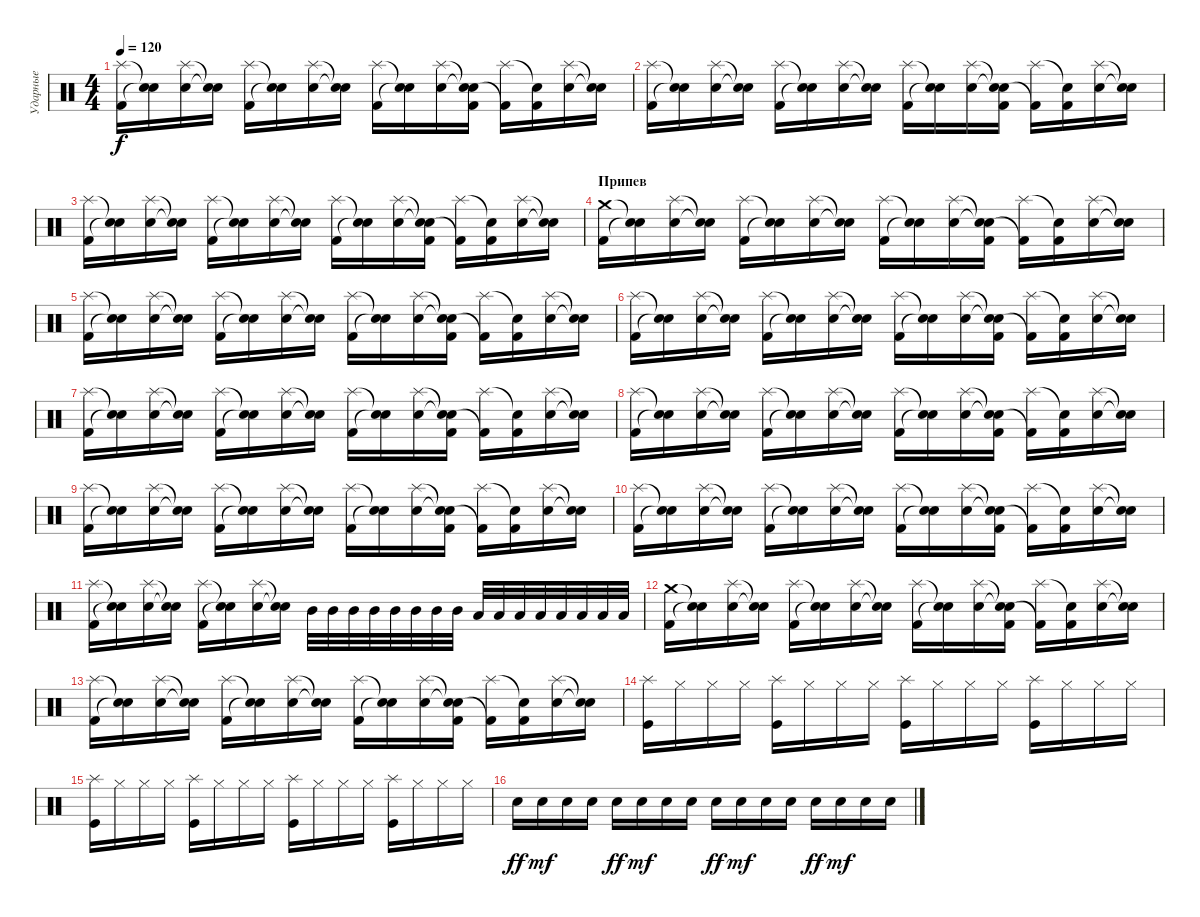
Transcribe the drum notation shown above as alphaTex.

\track ("Ударные" "Ударные") {instrument percussion}
\staff {score}
\articulation defaults
\ts (4 4)
\tempo 120
\clef neutral
\ks c
("Splash (hit)" "Kick (hit) 2").16{dy f} ("Snare (hit)"{t} "Snare (hit)"{t}).16 ("Splash (hit)" "Electric Snare (hit)").16 ("Snare (hit)"{t} "Snare (hit)"{t}).16 ("Splash (hit)" "Kick (hit) 2").16 ("Snare (hit)"{t} "Snare (hit)"{t}).16 ("Splash (hit)" "Electric Snare (hit)").16 ("Snare (hit)"{t} "Snare (hit)"{t}).16 ("Splash (hit)" "Kick (hit) 2").16 ("Snare (hit)"{t} "Snare (hit)"{t}).16 ("Splash (hit)" "Electric Snare (hit)").16 ("Snare (hit)"{t} "Snare (hit)"{t} "Kick (hit) 2").16 ("Splash (hit)" "Kick (hit) 2"{t}).16 ("Snare (hit)"{t} "Kick (hit) 2").16 ("Splash (hit)" "Electric Snare (hit)").16 ("Snare (hit)"{t} "Snare (hit)"{t}).16 |
("Splash (hit)" "Kick (hit) 2").16 ("Snare (hit)"{t} "Snare (hit)"{t}).16 ("Splash (hit)" "Electric Snare (hit)").16 ("Snare (hit)"{t} "Snare (hit)"{t}).16 ("Splash (hit)" "Kick (hit) 2").16 ("Snare (hit)"{t} "Snare (hit)"{t}).16 ("Splash (hit)" "Electric Snare (hit)").16 ("Snare (hit)"{t} "Snare (hit)"{t}).16 ("Splash (hit)" "Kick (hit) 2").16 ("Snare (hit)"{t} "Snare (hit)"{t}).16 ("Splash (hit)" "Electric Snare (hit)").16 ("Snare (hit)"{t} "Snare (hit)"{t} "Kick (hit) 2").16 ("Splash (hit)" "Kick (hit) 2"{t}).16 ("Snare (hit)"{t} "Kick (hit) 2").16 ("Splash (hit)" "Electric Snare (hit)").16 ("Snare (hit)"{t} "Snare (hit)"{t}).16 |
("Splash (hit)" "Kick (hit) 2").16 ("Snare (hit)"{t} "Snare (hit)"{t}).16 ("Splash (hit)" "Electric Snare (hit)").16 ("Snare (hit)"{t} "Snare (hit)"{t}).16 ("Splash (hit)" "Kick (hit) 2").16 ("Snare (hit)"{t} "Snare (hit)"{t}).16 ("Splash (hit)" "Electric Snare (hit)").16 ("Snare (hit)"{t} "Snare (hit)"{t}).16 ("Splash (hit)" "Kick (hit) 2").16 ("Snare (hit)"{t} "Snare (hit)"{t}).16 ("Splash (hit)" "Electric Snare (hit)").16 ("Snare (hit)"{t} "Snare (hit)"{t} "Kick (hit) 2").16 ("Splash (hit)" "Kick (hit) 2"{t}).16 ("Snare (hit)"{t} "Kick (hit) 2").16 ("Splash (hit)" "Electric Snare (hit)").16 ("Snare (hit)"{t} "Snare (hit)"{t}).16 |
\section ("" "Припев")
("Crash medium (hit)" "Kick (hit) 2").16 ("Snare (hit)"{t} "Snare (hit)"{t}).16 ("Splash (hit)" "Electric Snare (hit)").16 ("Snare (hit)"{t} "Snare (hit)"{t}).16 ("Splash (hit)" "Kick (hit) 2").16 ("Snare (hit)"{t} "Snare (hit)"{t}).16 ("Splash (hit)" "Electric Snare (hit)").16 ("Snare (hit)"{t} "Snare (hit)"{t}).16 ("Splash (hit)" "Kick (hit) 2").16 ("Snare (hit)"{t} "Snare (hit)"{t}).16 ("Splash (hit)" "Electric Snare (hit)").16 ("Snare (hit)"{t} "Snare (hit)"{t} "Kick (hit) 2").16 ("Splash (hit)" "Kick (hit) 2"{t}).16 ("Snare (hit)"{t} "Kick (hit) 2").16 ("Splash (hit)" "Electric Snare (hit)").16 ("Snare (hit)"{t} "Snare (hit)"{t}).16 |
("Splash (hit)" "Kick (hit) 2").16 ("Snare (hit)"{t} "Snare (hit)"{t}).16 ("Splash (hit)" "Electric Snare (hit)").16 ("Snare (hit)"{t} "Snare (hit)"{t}).16 ("Splash (hit)" "Kick (hit) 2").16 ("Snare (hit)"{t} "Snare (hit)"{t}).16 ("Splash (hit)" "Electric Snare (hit)").16 ("Snare (hit)"{t} "Snare (hit)"{t}).16 ("Splash (hit)" "Kick (hit) 2").16 ("Snare (hit)"{t} "Snare (hit)"{t}).16 ("Splash (hit)" "Electric Snare (hit)").16 ("Snare (hit)"{t} "Snare (hit)"{t} "Kick (hit) 2").16 ("Splash (hit)" "Kick (hit) 2"{t}).16 ("Snare (hit)"{t} "Kick (hit) 2").16 ("Splash (hit)" "Electric Snare (hit)").16 ("Snare (hit)"{t} "Snare (hit)"{t}).16 |
("Splash (hit)" "Kick (hit) 2").16 ("Snare (hit)"{t} "Snare (hit)"{t}).16 ("Splash (hit)" "Electric Snare (hit)").16 ("Snare (hit)"{t} "Snare (hit)"{t}).16 ("Splash (hit)" "Kick (hit) 2").16 ("Snare (hit)"{t} "Snare (hit)"{t}).16 ("Splash (hit)" "Electric Snare (hit)").16 ("Snare (hit)"{t} "Snare (hit)"{t}).16 ("Splash (hit)" "Kick (hit) 2").16 ("Snare (hit)"{t} "Snare (hit)"{t}).16 ("Splash (hit)" "Electric Snare (hit)").16 ("Snare (hit)"{t} "Snare (hit)"{t} "Kick (hit) 2").16 ("Splash (hit)" "Kick (hit) 2"{t}).16 ("Snare (hit)"{t} "Kick (hit) 2").16 ("Splash (hit)" "Electric Snare (hit)").16 ("Snare (hit)"{t} "Snare (hit)"{t}).16 |
("Splash (hit)" "Kick (hit) 2").16 ("Snare (hit)"{t} "Snare (hit)"{t}).16 ("Splash (hit)" "Electric Snare (hit)").16 ("Snare (hit)"{t} "Snare (hit)"{t}).16 ("Splash (hit)" "Kick (hit) 2").16 ("Snare (hit)"{t} "Snare (hit)"{t}).16 ("Splash (hit)" "Electric Snare (hit)").16 ("Snare (hit)"{t} "Snare (hit)"{t}).16 ("Splash (hit)" "Kick (hit) 2").16 ("Snare (hit)"{t} "Snare (hit)"{t}).16 ("Splash (hit)" "Electric Snare (hit)").16 ("Snare (hit)"{t} "Snare (hit)"{t} "Kick (hit) 2").16 ("Splash (hit)" "Kick (hit) 2"{t}).16 ("Snare (hit)"{t} "Kick (hit) 2").16 ("Splash (hit)" "Electric Snare (hit)").16 ("Snare (hit)"{t} "Snare (hit)"{t}).16 |
("Splash (hit)" "Kick (hit) 2").16 ("Snare (hit)"{t} "Snare (hit)"{t}).16 ("Splash (hit)" "Electric Snare (hit)").16 ("Snare (hit)"{t} "Snare (hit)"{t}).16 ("Splash (hit)" "Kick (hit) 2").16 ("Snare (hit)"{t} "Snare (hit)"{t}).16 ("Splash (hit)" "Electric Snare (hit)").16 ("Snare (hit)"{t} "Snare (hit)"{t}).16 ("Splash (hit)" "Kick (hit) 2").16 ("Snare (hit)"{t} "Snare (hit)"{t}).16 ("Splash (hit)" "Electric Snare (hit)").16 ("Snare (hit)"{t} "Snare (hit)"{t} "Kick (hit) 2").16 ("Splash (hit)" "Kick (hit) 2"{t}).16 ("Snare (hit)"{t} "Kick (hit) 2").16 ("Splash (hit)" "Electric Snare (hit)").16 ("Snare (hit)"{t} "Snare (hit)"{t}).16 |
("Splash (hit)" "Kick (hit) 2").16 ("Snare (hit)"{t} "Snare (hit)"{t}).16 ("Splash (hit)" "Electric Snare (hit)").16 ("Snare (hit)"{t} "Snare (hit)"{t}).16 ("Splash (hit)" "Kick (hit) 2").16 ("Snare (hit)"{t} "Snare (hit)"{t}).16 ("Splash (hit)" "Electric Snare (hit)").16 ("Snare (hit)"{t} "Snare (hit)"{t}).16 ("Splash (hit)" "Kick (hit) 2").16 ("Snare (hit)"{t} "Snare (hit)"{t}).16 ("Splash (hit)" "Electric Snare (hit)").16 ("Snare (hit)"{t} "Snare (hit)"{t} "Kick (hit) 2").16 ("Splash (hit)" "Kick (hit) 2"{t}).16 ("Snare (hit)"{t} "Kick (hit) 2").16 ("Splash (hit)" "Electric Snare (hit)").16 ("Snare (hit)"{t} "Snare (hit)"{t}).16 |
("Splash (hit)" "Kick (hit) 2").16 ("Snare (hit)"{t} "Snare (hit)"{t}).16 ("Splash (hit)" "Electric Snare (hit)").16 ("Snare (hit)"{t} "Snare (hit)"{t}).16 ("Splash (hit)" "Kick (hit) 2").16 ("Snare (hit)"{t} "Snare (hit)"{t}).16 ("Splash (hit)" "Electric Snare (hit)").16 ("Snare (hit)"{t} "Snare (hit)"{t}).16 ("Splash (hit)" "Kick (hit) 2").16 ("Snare (hit)"{t} "Snare (hit)"{t}).16 ("Splash (hit)" "Electric Snare (hit)").16 ("Snare (hit)"{t} "Snare (hit)"{t} "Kick (hit) 2").16 ("Splash (hit)" "Kick (hit) 2"{t}).16 ("Snare (hit)"{t} "Kick (hit) 2").16 ("Splash (hit)" "Electric Snare (hit)").16 ("Snare (hit)"{t} "Snare (hit)"{t}).16 |
("Splash (hit)" "Kick (hit) 2").16 ("Snare (hit)"{t} "Snare (hit)"{t}).16 ("Splash (hit)" "Electric Snare (hit)").16 ("Snare (hit)"{t} "Snare (hit)"{t}).16 ("Splash (hit)" "Kick (hit) 2").16 ("Snare (hit)"{t} "Snare (hit)"{t}).16 ("Splash (hit)" "Electric Snare (hit)").16 ("Snare (hit)"{t} "Snare (hit)"{t}).16 "Mid Tom (hit)".32 "Mid Tom (hit)".32 "Mid Tom (hit)".32 "Mid Tom (hit)".32 "Mid Tom (hit)".32 "Mid Tom (hit)".32 "Mid Tom (hit)".32 "Mid Tom (hit)".32 "Low Tom (hit)".32 "Low Tom (hit)".32 "Low Tom (hit)".32 "Low Tom (hit)".32 "Low Tom (hit)".32 "Low Tom (hit)".32 "Low Tom (hit)".32 "Low Tom (hit)".32 |
("Crash medium (hit)" "Kick (hit) 2").16 ("Snare (hit)"{t} "Snare (hit)"{t}).16 ("Splash (hit)" "Electric Snare (hit)").16 ("Snare (hit)"{t} "Snare (hit)"{t}).16 ("Splash (hit)" "Kick (hit) 2").16 ("Snare (hit)"{t} "Snare (hit)"{t}).16 ("Splash (hit)" "Electric Snare (hit)").16 ("Snare (hit)"{t} "Snare (hit)"{t}).16 ("Splash (hit)" "Kick (hit) 2").16 ("Snare (hit)"{t} "Snare (hit)"{t}).16 ("Splash (hit)" "Electric Snare (hit)").16 ("Snare (hit)"{t} "Snare (hit)"{t} "Kick (hit) 2").16 ("Splash (hit)" "Kick (hit) 2"{t}).16 ("Snare (hit)"{t} "Kick (hit) 2").16 ("Splash (hit)" "Electric Snare (hit)").16 ("Snare (hit)"{t} "Snare (hit)"{t}).16 |
("Splash (hit)" "Kick (hit) 2").16 ("Snare (hit)"{t} "Snare (hit)"{t}).16 ("Splash (hit)" "Electric Snare (hit)").16 ("Snare (hit)"{t} "Snare (hit)"{t}).16 ("Splash (hit)" "Kick (hit) 2").16 ("Snare (hit)"{t} "Snare (hit)"{t}).16 ("Splash (hit)" "Electric Snare (hit)").16 ("Snare (hit)"{t} "Snare (hit)"{t}).16 ("Splash (hit)" "Kick (hit) 2").16 ("Snare (hit)"{t} "Snare (hit)"{t}).16 ("Splash (hit)" "Electric Snare (hit)").16 ("Snare (hit)"{t} "Snare (hit)"{t} "Kick (hit) 2").16 ("Splash (hit)" "Kick (hit) 2"{t}).16 ("Snare (hit)"{t} "Kick (hit) 2").16 ("Splash (hit)" "Electric Snare (hit)").16 ("Snare (hit)"{t} "Snare (hit)"{t}).16 |
("Splash (hit)" "Kick (hit)").16 "Hi-Hat (closed)".16 "Hi-Hat (closed)".16 "Hi-Hat (closed)".16 ("Splash (hit)" "Kick (hit)").16 "Hi-Hat (closed)".16 "Hi-Hat (closed)".16 "Hi-Hat (closed)".16 ("Splash (hit)" "Kick (hit)").16 "Hi-Hat (closed)".16 "Hi-Hat (closed)".16 "Hi-Hat (closed)".16 ("Splash (hit)" "Kick (hit)").16 "Hi-Hat (closed)".16 "Hi-Hat (closed)".16 "Hi-Hat (closed)".16 |
("Splash (hit)" "Kick (hit)").16 "Hi-Hat (closed)".16 "Hi-Hat (closed)".16 "Hi-Hat (closed)".16 ("Splash (hit)" "Kick (hit)").16 "Hi-Hat (closed)".16 "Hi-Hat (closed)".16 "Hi-Hat (closed)".16 ("Splash (hit)" "Kick (hit)").16 "Hi-Hat (closed)".16 "Hi-Hat (closed)".16 "Hi-Hat (closed)".16 ("Splash (hit)" "Kick (hit)").16 "Hi-Hat (closed)".16 "Hi-Hat (closed)".16 "Hi-Hat (closed)".16 |
"Electric Snare (hit)".16{dy ff} "Electric Snare (hit)".16{dy mf} "Electric Snare (hit)".16 "Electric Snare (hit)".16 "Electric Snare (hit)".16{dy ff} "Electric Snare (hit)".16{dy mf} "Electric Snare (hit)".16 "Electric Snare (hit)".16 "Electric Snare (hit)".16{dy ff} "Electric Snare (hit)".16{dy mf} "Electric Snare (hit)".16 "Electric Snare (hit)".16 "Electric Snare (hit)".16{dy ff} "Electric Snare (hit)".16{dy mf} "Electric Snare (hit)".16 "Electric Snare (hit)".16
